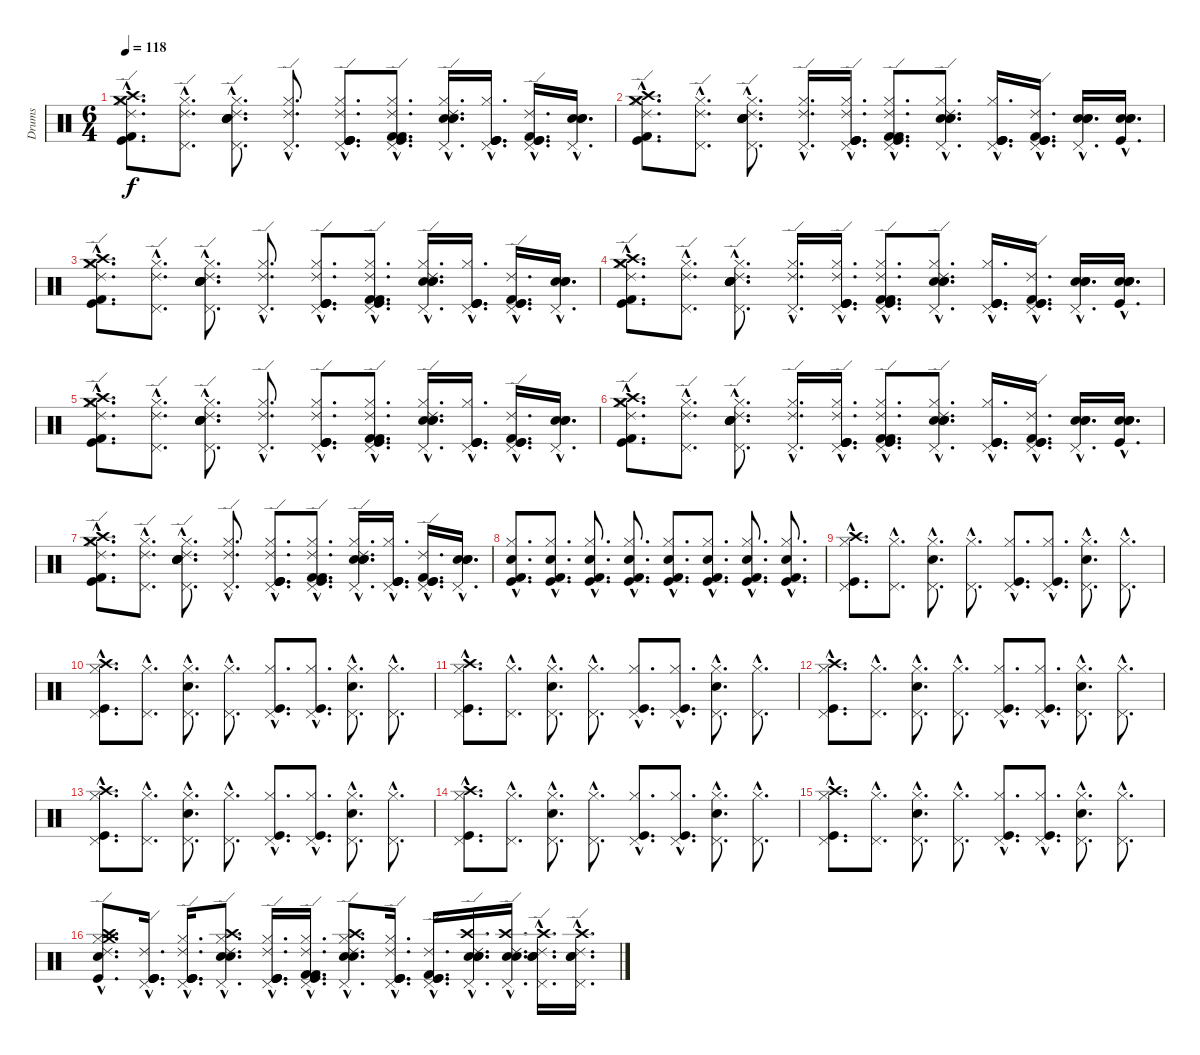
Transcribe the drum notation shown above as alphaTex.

\track ("Drums" "Drums") {instrument percussion}
\staff {score}
\articulation defaults
\ts (6 4)
\tempo 118
\clef neutral
\ks c
("Ride (edge) 2"{hac} "Crash high (hit)"{hac} "Kick (hit)"{hac} "Kick (hit) 2"{hac} "Hi-Hat (closed)"{hac} "Crash medium (hit)"{hac}).8{d dy f} ("Pedal Hi-Hat (hit)"{hac} "Hi-Hat (closed)"{hac} "Ride (edge) 2"{hac}).8{d} ("Pedal Hi-Hat (hit)"{hac} "Electric Snare (hit)"{hac} "Hand Clap (hit)"{hac} "Hand Clap (hit)"{hac} "Hi-Hat (closed)"{hac} "Ride (edge) 2"{hac}).8{d} ("Pedal Hi-Hat (hit)"{hac} "Hi-Hat (closed)"{hac} "Ride (edge) 2"{hac}).8{d} ("Pedal Hi-Hat (hit)"{hac} "Kick (hit)"{hac} "Kick (hit)"{hac} "Kick (hit)"{hac} "Hi-Hat (closed)"{hac} "Ride (edge) 2"{hac}).8{d} ("Pedal Hi-Hat (hit)"{hac} "Kick (hit)"{hac} "Kick (hit) 2"{hac} "Kick (hit) 2"{hac} "Hi-Hat (closed)"{hac} "Ride (edge) 2"{hac}).8{d} ("Pedal Hi-Hat (hit)"{hac} "Hand Clap (hit)"{hac} "Hand Clap (hit)"{hac} "Electric Snare (hit)"{hac} "Hi-Hat (closed)"{hac} "Ride (edge) 2"{hac}).16{d} ("Pedal Hi-Hat (hit)"{hac} "Kick (hit)"{hac} "Kick (hit)"{hac} "Kick (hit)"{hac} "Hi-Hat (closed)"{hac}).16{d} ("Pedal Hi-Hat (hit)"{hac} "Kick (hit)"{hac} "Kick (hit) 2"{hac} "Kick (hit)"{hac} "Ride (edge) 2"{hac}).16{d} ("Pedal Hi-Hat (hit)"{hac} "Electric Snare (hit)"{hac} "Hand Clap (hit)"{hac} "Electric Snare (hit)"{hac}).16{d} |
("Ride (edge) 2"{hac} "Crash high (hit)"{hac} "Kick (hit)"{hac} "Kick (hit) 2"{hac} "Hi-Hat (closed)"{hac} "Crash medium (hit)"{hac}).8{d} ("Pedal Hi-Hat (hit)"{hac} "Hi-Hat (closed)"{hac} "Ride (edge) 2"{hac}).8{d} ("Pedal Hi-Hat (hit)"{hac} "Electric Snare (hit)"{hac} "Hand Clap (hit)"{hac} "Hand Clap (hit)"{hac} "Hi-Hat (closed)"{hac} "Ride (edge) 2"{hac}).8{d} ("Pedal Hi-Hat (hit)"{hac} "Hi-Hat (closed)"{hac} "Ride (edge) 2"{hac}).16{d} ("Pedal Hi-Hat (hit)"{hac} "Kick (hit)"{hac} "Kick (hit)"{hac} "Kick (hit)"{hac} "Hi-Hat (closed)"{hac} "Ride (edge) 2"{hac}).16{d} ("Pedal Hi-Hat (hit)"{hac} "Kick (hit)"{hac} "Kick (hit) 2"{hac} "Kick (hit) 2"{hac} "Hi-Hat (closed)"{hac} "Ride (edge) 2"{hac}).8{d} ("Pedal Hi-Hat (hit)"{hac} "Hand Clap (hit)"{hac} "Hand Clap (hit)"{hac} "Electric Snare (hit)"{hac} "Hi-Hat (closed)"{hac} "Ride (edge) 2"{hac}).8{d} ("Pedal Hi-Hat (hit)"{hac} "Kick (hit)"{hac} "Kick (hit)"{hac} "Kick (hit)"{hac} "Hi-Hat (closed)"{hac}).16{d} ("Pedal Hi-Hat (hit)"{hac} "Kick (hit)"{hac} "Kick (hit) 2"{hac} "Kick (hit)"{hac} "Ride (edge) 2"{hac}).16{d} ("Pedal Hi-Hat (hit)"{hac} "Electric Snare (hit)"{hac} "Hand Clap (hit)"{hac} "Electric Snare (hit)"{hac}).16{d} ("Kick (hit)"{hac} "Electric Snare (hit)"{hac} "Hand Clap (hit)"{hac} "Electric Snare (hit)"{hac}).16{d} |
("Ride (edge) 2"{hac} "Crash high (hit)"{hac} "Kick (hit)"{hac} "Kick (hit) 2"{hac} "Hi-Hat (closed)"{hac} "Crash medium (hit)"{hac}).8{d} ("Pedal Hi-Hat (hit)"{hac} "Hi-Hat (closed)"{hac} "Ride (edge) 2"{hac}).8{d} ("Pedal Hi-Hat (hit)"{hac} "Electric Snare (hit)"{hac} "Hand Clap (hit)"{hac} "Hand Clap (hit)"{hac} "Hi-Hat (closed)"{hac} "Ride (edge) 2"{hac}).8{d} ("Pedal Hi-Hat (hit)"{hac} "Hi-Hat (closed)"{hac} "Ride (edge) 2"{hac}).8{d} ("Pedal Hi-Hat (hit)"{hac} "Kick (hit)"{hac} "Kick (hit)"{hac} "Kick (hit)"{hac} "Hi-Hat (closed)"{hac} "Ride (edge) 2"{hac}).8{d} ("Pedal Hi-Hat (hit)"{hac} "Kick (hit)"{hac} "Kick (hit) 2"{hac} "Kick (hit) 2"{hac} "Hi-Hat (closed)"{hac} "Ride (edge) 2"{hac}).8{d} ("Pedal Hi-Hat (hit)"{hac} "Hand Clap (hit)"{hac} "Hand Clap (hit)"{hac} "Electric Snare (hit)"{hac} "Hi-Hat (closed)"{hac} "Ride (edge) 2"{hac}).16{d} ("Pedal Hi-Hat (hit)"{hac} "Kick (hit)"{hac} "Kick (hit)"{hac} "Kick (hit)"{hac} "Hi-Hat (closed)"{hac}).16{d} ("Pedal Hi-Hat (hit)"{hac} "Kick (hit)"{hac} "Kick (hit) 2"{hac} "Kick (hit)"{hac} "Ride (edge) 2"{hac}).16{d} ("Pedal Hi-Hat (hit)"{hac} "Electric Snare (hit)"{hac} "Hand Clap (hit)"{hac} "Electric Snare (hit)"{hac}).16{d} |
("Ride (edge) 2"{hac} "Crash high (hit)"{hac} "Kick (hit)"{hac} "Kick (hit) 2"{hac} "Hi-Hat (closed)"{hac} "Crash medium (hit)"{hac}).8{d} ("Pedal Hi-Hat (hit)"{hac} "Hi-Hat (closed)"{hac} "Ride (edge) 2"{hac}).8{d} ("Pedal Hi-Hat (hit)"{hac} "Electric Snare (hit)"{hac} "Hand Clap (hit)"{hac} "Hand Clap (hit)"{hac} "Hi-Hat (closed)"{hac} "Ride (edge) 2"{hac}).8{d} ("Pedal Hi-Hat (hit)"{hac} "Hi-Hat (closed)"{hac} "Ride (edge) 2"{hac}).16{d} ("Pedal Hi-Hat (hit)"{hac} "Kick (hit)"{hac} "Kick (hit)"{hac} "Kick (hit)"{hac} "Hi-Hat (closed)"{hac} "Ride (edge) 2"{hac}).16{d} ("Pedal Hi-Hat (hit)"{hac} "Kick (hit)"{hac} "Kick (hit) 2"{hac} "Kick (hit) 2"{hac} "Hi-Hat (closed)"{hac} "Ride (edge) 2"{hac}).8{d} ("Pedal Hi-Hat (hit)"{hac} "Hand Clap (hit)"{hac} "Hand Clap (hit)"{hac} "Electric Snare (hit)"{hac} "Hi-Hat (closed)"{hac} "Ride (edge) 2"{hac}).8{d} ("Pedal Hi-Hat (hit)"{hac} "Kick (hit)"{hac} "Kick (hit)"{hac} "Kick (hit)"{hac} "Hi-Hat (closed)"{hac}).16{d} ("Pedal Hi-Hat (hit)"{hac} "Kick (hit)"{hac} "Kick (hit) 2"{hac} "Kick (hit)"{hac} "Ride (edge) 2"{hac}).16{d} ("Pedal Hi-Hat (hit)"{hac} "Electric Snare (hit)"{hac} "Hand Clap (hit)"{hac} "Electric Snare (hit)"{hac}).16{d} ("Kick (hit)"{hac} "Electric Snare (hit)"{hac} "Hand Clap (hit)"{hac} "Electric Snare (hit)"{hac}).16{d} |
("Ride (edge) 2"{hac} "Crash high (hit)"{hac} "Kick (hit)"{hac} "Kick (hit) 2"{hac} "Hi-Hat (closed)"{hac} "Crash medium (hit)"{hac}).8{d} ("Pedal Hi-Hat (hit)"{hac} "Hi-Hat (closed)"{hac} "Ride (edge) 2"{hac}).8{d} ("Pedal Hi-Hat (hit)"{hac} "Electric Snare (hit)"{hac} "Hand Clap (hit)"{hac} "Hand Clap (hit)"{hac} "Hi-Hat (closed)"{hac} "Ride (edge) 2"{hac}).8{d} ("Pedal Hi-Hat (hit)"{hac} "Hi-Hat (closed)"{hac} "Ride (edge) 2"{hac}).8{d} ("Pedal Hi-Hat (hit)"{hac} "Kick (hit)"{hac} "Kick (hit)"{hac} "Kick (hit)"{hac} "Hi-Hat (closed)"{hac} "Ride (edge) 2"{hac}).8{d} ("Pedal Hi-Hat (hit)"{hac} "Kick (hit)"{hac} "Kick (hit) 2"{hac} "Kick (hit) 2"{hac} "Hi-Hat (closed)"{hac} "Ride (edge) 2"{hac}).8{d} ("Pedal Hi-Hat (hit)"{hac} "Hand Clap (hit)"{hac} "Hand Clap (hit)"{hac} "Electric Snare (hit)"{hac} "Hi-Hat (closed)"{hac} "Ride (edge) 2"{hac}).16{d} ("Pedal Hi-Hat (hit)"{hac} "Kick (hit)"{hac} "Kick (hit)"{hac} "Kick (hit)"{hac} "Hi-Hat (closed)"{hac}).16{d} ("Pedal Hi-Hat (hit)"{hac} "Kick (hit)"{hac} "Kick (hit) 2"{hac} "Kick (hit)"{hac} "Ride (edge) 2"{hac}).16{d} ("Pedal Hi-Hat (hit)"{hac} "Electric Snare (hit)"{hac} "Hand Clap (hit)"{hac} "Electric Snare (hit)"{hac}).16{d} |
("Ride (edge) 2"{hac} "Crash high (hit)"{hac} "Kick (hit)"{hac} "Kick (hit) 2"{hac} "Hi-Hat (closed)"{hac} "Crash medium (hit)"{hac}).8{d} ("Pedal Hi-Hat (hit)"{hac} "Hi-Hat (closed)"{hac} "Ride (edge) 2"{hac}).8{d} ("Pedal Hi-Hat (hit)"{hac} "Electric Snare (hit)"{hac} "Hand Clap (hit)"{hac} "Hand Clap (hit)"{hac} "Hi-Hat (closed)"{hac} "Ride (edge) 2"{hac}).8{d} ("Pedal Hi-Hat (hit)"{hac} "Hi-Hat (closed)"{hac} "Ride (edge) 2"{hac}).16{d} ("Pedal Hi-Hat (hit)"{hac} "Kick (hit)"{hac} "Kick (hit)"{hac} "Kick (hit)"{hac} "Hi-Hat (closed)"{hac} "Ride (edge) 2"{hac}).16{d} ("Pedal Hi-Hat (hit)"{hac} "Kick (hit)"{hac} "Kick (hit) 2"{hac} "Kick (hit) 2"{hac} "Hi-Hat (closed)"{hac} "Ride (edge) 2"{hac}).8{d} ("Pedal Hi-Hat (hit)"{hac} "Hand Clap (hit)"{hac} "Hand Clap (hit)"{hac} "Electric Snare (hit)"{hac} "Hi-Hat (closed)"{hac} "Ride (edge) 2"{hac}).8{d} ("Pedal Hi-Hat (hit)"{hac} "Kick (hit)"{hac} "Kick (hit)"{hac} "Kick (hit)"{hac} "Hi-Hat (closed)"{hac}).16{d} ("Pedal Hi-Hat (hit)"{hac} "Kick (hit)"{hac} "Kick (hit) 2"{hac} "Kick (hit)"{hac} "Ride (edge) 2"{hac}).16{d} ("Pedal Hi-Hat (hit)"{hac} "Electric Snare (hit)"{hac} "Hand Clap (hit)"{hac} "Electric Snare (hit)"{hac}).16{d} ("Kick (hit)"{hac} "Electric Snare (hit)"{hac} "Hand Clap (hit)"{hac} "Electric Snare (hit)"{hac}).16{d} |
("Ride (edge) 2"{hac} "Crash high (hit)"{hac} "Kick (hit)"{hac} "Kick (hit) 2"{hac} "Hi-Hat (closed)"{hac} "Crash medium (hit)"{hac}).8{d} ("Pedal Hi-Hat (hit)"{hac} "Hi-Hat (closed)"{hac} "Ride (edge) 2"{hac}).8{d} ("Pedal Hi-Hat (hit)"{hac} "Electric Snare (hit)"{hac} "Hand Clap (hit)"{hac} "Hand Clap (hit)"{hac} "Hi-Hat (closed)"{hac} "Ride (edge) 2"{hac}).8{d} ("Pedal Hi-Hat (hit)"{hac} "Hi-Hat (closed)"{hac} "Ride (edge) 2"{hac}).8{d} ("Pedal Hi-Hat (hit)"{hac} "Kick (hit)"{hac} "Kick (hit)"{hac} "Kick (hit)"{hac} "Hi-Hat (closed)"{hac} "Ride (edge) 2"{hac}).8{d} ("Pedal Hi-Hat (hit)"{hac} "Kick (hit)"{hac} "Kick (hit) 2"{hac} "Kick (hit) 2"{hac} "Hi-Hat (closed)"{hac} "Ride (edge) 2"{hac}).8{d} ("Pedal Hi-Hat (hit)"{hac} "Hand Clap (hit)"{hac} "Hand Clap (hit)"{hac} "Electric Snare (hit)"{hac} "Hi-Hat (closed)"{hac} "Ride (edge) 2"{hac}).16{d} ("Pedal Hi-Hat (hit)"{hac} "Kick (hit)"{hac} "Kick (hit)"{hac} "Kick (hit)"{hac} "Hi-Hat (closed)"{hac}).16{d} ("Pedal Hi-Hat (hit)"{hac} "Kick (hit)"{hac} "Kick (hit) 2"{hac} "Kick (hit)"{hac} "Ride (edge) 2"{hac}).16{d} ("Pedal Hi-Hat (hit)"{hac} "Electric Snare (hit)"{hac} "Hand Clap (hit)"{hac} "Electric Snare (hit)"{hac}).16{d} |
("Electric Snare (hit)"{hac} "Kick (hit)"{hac} "Kick (hit) 2"{hac} "Hi-Hat (closed)"{hac}).8{d} ("Electric Snare (hit)"{hac} "Kick (hit)"{hac} "Kick (hit) 2"{hac} "Hi-Hat (closed)"{hac}).8{d} ("Electric Snare (hit)"{hac} "Kick (hit)"{hac} "Kick (hit) 2"{hac} "Hi-Hat (closed)"{hac}).8{d} ("Electric Snare (hit)"{hac} "Kick (hit)"{hac} "Kick (hit) 2"{hac} "Hi-Hat (closed)"{hac}).8{d} ("Electric Snare (hit)"{hac} "Kick (hit)"{hac} "Kick (hit) 2"{hac} "Hi-Hat (closed)"{hac}).8{d} ("Electric Snare (hit)"{hac} "Kick (hit)"{hac} "Kick (hit) 2"{hac} "Hi-Hat (closed)"{hac}).8{d} ("Electric Snare (hit)"{hac} "Kick (hit)"{hac} "Kick (hit) 2"{hac} "Hi-Hat (closed)"{hac}).8{d} ("Electric Snare (hit)"{hac} "Kick (hit)"{hac} "Kick (hit) 2"{hac} "Hi-Hat (closed)"{hac}).8{d} |
("Hi-Hat (closed)"{hac} "Pedal Hi-Hat (hit)"{hac} "Kick (hit)"{hac} "Crash high (hit)"{hac}).8{d} ("Hi-Hat (closed)"{hac} "Pedal Hi-Hat (hit)"{hac}).8{d} ("Hi-Hat (closed)"{hac} "Pedal Hi-Hat (hit)"{hac} "Hand Clap (hit)"{hac}).8{d} ("Hi-Hat (closed)"{hac} "Pedal Hi-Hat (hit)"{hac}).8{d} ("Hi-Hat (closed)"{hac} "Pedal Hi-Hat (hit)"{hac} "Kick (hit)"{hac}).8{d} ("Hi-Hat (closed)"{hac} "Pedal Hi-Hat (hit)"{hac} "Kick (hit)"{hac}).8{d} ("Hi-Hat (closed)"{hac} "Pedal Hi-Hat (hit)"{hac} "Hand Clap (hit)"{hac}).8{d} ("Hi-Hat (closed)"{hac} "Pedal Hi-Hat (hit)"{hac}).8{d} |
("Hi-Hat (closed)"{hac} "Pedal Hi-Hat (hit)"{hac} "Kick (hit)"{hac} "Crash high (hit)"{hac}).8{d} ("Hi-Hat (closed)"{hac} "Pedal Hi-Hat (hit)"{hac}).8{d} ("Hi-Hat (closed)"{hac} "Pedal Hi-Hat (hit)"{hac} "Hand Clap (hit)"{hac}).8{d} ("Hi-Hat (closed)"{hac} "Pedal Hi-Hat (hit)"{hac}).8{d} ("Hi-Hat (closed)"{hac} "Pedal Hi-Hat (hit)"{hac} "Kick (hit)"{hac}).8{d} ("Hi-Hat (closed)"{hac} "Pedal Hi-Hat (hit)"{hac} "Kick (hit)"{hac}).8{d} ("Hi-Hat (closed)"{hac} "Pedal Hi-Hat (hit)"{hac} "Hand Clap (hit)"{hac}).8{d} ("Hi-Hat (closed)"{hac} "Pedal Hi-Hat (hit)"{hac}).8{d} |
("Hi-Hat (closed)"{hac} "Pedal Hi-Hat (hit)"{hac} "Kick (hit)"{hac} "Crash high (hit)"{hac}).8{d} ("Hi-Hat (closed)"{hac} "Pedal Hi-Hat (hit)"{hac}).8{d} ("Hi-Hat (closed)"{hac} "Pedal Hi-Hat (hit)"{hac} "Hand Clap (hit)"{hac}).8{d} ("Hi-Hat (closed)"{hac} "Pedal Hi-Hat (hit)"{hac}).8{d} ("Hi-Hat (closed)"{hac} "Pedal Hi-Hat (hit)"{hac} "Kick (hit)"{hac}).8{d} ("Hi-Hat (closed)"{hac} "Pedal Hi-Hat (hit)"{hac} "Kick (hit)"{hac}).8{d} ("Hi-Hat (closed)"{hac} "Pedal Hi-Hat (hit)"{hac} "Hand Clap (hit)"{hac}).8{d} ("Hi-Hat (closed)"{hac} "Pedal Hi-Hat (hit)"{hac}).8{d} |
("Hi-Hat (closed)"{hac} "Pedal Hi-Hat (hit)"{hac} "Kick (hit)"{hac} "Crash high (hit)"{hac}).8{d} ("Hi-Hat (closed)"{hac} "Pedal Hi-Hat (hit)"{hac}).8{d} ("Hi-Hat (closed)"{hac} "Pedal Hi-Hat (hit)"{hac} "Hand Clap (hit)"{hac}).8{d} ("Hi-Hat (closed)"{hac} "Pedal Hi-Hat (hit)"{hac}).8{d} ("Hi-Hat (closed)"{hac} "Pedal Hi-Hat (hit)"{hac} "Kick (hit)"{hac}).8{d} ("Hi-Hat (closed)"{hac} "Pedal Hi-Hat (hit)"{hac} "Kick (hit)"{hac}).8{d} ("Hi-Hat (closed)"{hac} "Pedal Hi-Hat (hit)"{hac} "Hand Clap (hit)"{hac}).8{d} ("Hi-Hat (closed)"{hac} "Pedal Hi-Hat (hit)"{hac}).8{d} |
("Hi-Hat (closed)"{hac} "Pedal Hi-Hat (hit)"{hac} "Kick (hit)"{hac} "Crash high (hit)"{hac}).8{d} ("Hi-Hat (closed)"{hac} "Pedal Hi-Hat (hit)"{hac}).8{d} ("Hi-Hat (closed)"{hac} "Pedal Hi-Hat (hit)"{hac} "Hand Clap (hit)"{hac}).8{d} ("Hi-Hat (closed)"{hac} "Pedal Hi-Hat (hit)"{hac}).8{d} ("Hi-Hat (closed)"{hac} "Pedal Hi-Hat (hit)"{hac} "Kick (hit)"{hac}).8{d} ("Hi-Hat (closed)"{hac} "Pedal Hi-Hat (hit)"{hac} "Kick (hit)"{hac}).8{d} ("Hi-Hat (closed)"{hac} "Pedal Hi-Hat (hit)"{hac} "Hand Clap (hit)"{hac}).8{d} ("Hi-Hat (closed)"{hac} "Pedal Hi-Hat (hit)"{hac}).8{d} |
("Hi-Hat (closed)"{hac} "Pedal Hi-Hat (hit)"{hac} "Kick (hit)"{hac} "Crash high (hit)"{hac}).8{d} ("Hi-Hat (closed)"{hac} "Pedal Hi-Hat (hit)"{hac}).8{d} ("Hi-Hat (closed)"{hac} "Pedal Hi-Hat (hit)"{hac} "Hand Clap (hit)"{hac}).8{d} ("Hi-Hat (closed)"{hac} "Pedal Hi-Hat (hit)"{hac}).8{d} ("Hi-Hat (closed)"{hac} "Pedal Hi-Hat (hit)"{hac} "Kick (hit)"{hac}).8{d} ("Hi-Hat (closed)"{hac} "Pedal Hi-Hat (hit)"{hac} "Kick (hit)"{hac}).8{d} ("Hi-Hat (closed)"{hac} "Pedal Hi-Hat (hit)"{hac} "Hand Clap (hit)"{hac}).8{d} ("Hi-Hat (closed)"{hac} "Pedal Hi-Hat (hit)"{hac}).8{d} |
("Hi-Hat (closed)"{hac} "Pedal Hi-Hat (hit)"{hac} "Kick (hit)"{hac} "Crash high (hit)"{hac}).8{d} ("Hi-Hat (closed)"{hac} "Pedal Hi-Hat (hit)"{hac}).8{d} ("Hi-Hat (closed)"{hac} "Pedal Hi-Hat (hit)"{hac} "Hand Clap (hit)"{hac}).8{d} ("Hi-Hat (closed)"{hac} "Pedal Hi-Hat (hit)"{hac}).8{d} ("Hi-Hat (closed)"{hac} "Pedal Hi-Hat (hit)"{hac} "Kick (hit)"{hac}).8{d} ("Hi-Hat (closed)"{hac} "Pedal Hi-Hat (hit)"{hac} "Kick (hit)"{hac}).8{d} ("Hi-Hat (closed)"{hac} "Pedal Hi-Hat (hit)"{hac} "Hand Clap (hit)"{hac}).8{d} ("Hi-Hat (closed)"{hac} "Pedal Hi-Hat (hit)"{hac}).8{d} |
("Ride (edge) 2"{hac} "Crash high (hit)"{hac} "Kick (hit)"{hac} "Electric Snare (hit)"{hac} "Hi-Hat (closed)"{hac} "Crash medium (hit)"{hac}).8{d} ("Pedal Hi-Hat (hit)"{hac} "Kick (hit)"{hac} "Kick (hit)"{hac} "Kick (hit)"{hac} "Ride (edge) 2"{hac}).16{d} ("Pedal Hi-Hat (hit)"{hac} "Kick (hit)"{hac} "Kick (hit)"{hac} "Kick (hit)"{hac} "Hi-Hat (closed)"{hac} "Ride (edge) 2"{hac}).16{d} ("Pedal Hi-Hat (hit)"{hac} "Crash high (hit)"{hac} "Electric Snare (hit)"{hac} "Electric Snare (hit)"{hac} "Hi-Hat (closed)"{hac} "Ride (edge) 2"{hac}).8{d} ("Pedal Hi-Hat (hit)"{hac} "Kick (hit)"{hac} "Kick (hit)"{hac} "Kick (hit)"{hac} "Hi-Hat (closed)"{hac} "Ride (edge) 2"{hac}).16{d} ("Pedal Hi-Hat (hit)"{hac} "Kick (hit)"{hac} "Kick (hit) 2"{hac} "Kick (hit) 2"{hac} "Hi-Hat (closed)"{hac} "Ride (edge) 2"{hac}).16{d} ("Pedal Hi-Hat (hit)"{hac} "Crash high (hit)"{hac} "Hand Clap (hit)"{hac} "Electric Snare (hit)"{hac} "Hi-Hat (closed)"{hac} "Ride (edge) 2"{hac}).8{d} ("Pedal Hi-Hat (hit)"{hac} "Kick (hit)"{hac} "Kick (hit)"{hac} "Kick (hit)"{hac} "Hi-Hat (closed)"{hac} "Ride (edge) 2"{hac}).16{d} ("Pedal Hi-Hat (hit)"{hac} "Kick (hit)"{hac} "Kick (hit) 2"{hac} "Kick (hit)"{hac} "Ride (edge) 2"{hac}).16{d} ("Pedal Hi-Hat (hit)"{hac} "Electric Snare (hit)"{hac} "Hand Clap (hit)"{hac} "Electric Snare (hit)"{hac} "Crash high (hit)"{hac} "Ride (edge) 2"{hac}).16{d} ("Pedal Hi-Hat (hit)"{hac} "Electric Snare (hit)"{hac} "Electric Snare (hit)"{hac} "Crash high (hit)"{hac} "Ride (edge) 2"{hac}).16{d} ("Pedal Hi-Hat (hit)"{hac} "Electric Snare (hit)"{hac} "Electric Snare (hit)"{hac} "Crash high (hit)"{hac} "Ride (edge) 2"{hac}).16{d} ("Pedal Hi-Hat (hit)"{hac} "Electric Snare (hit)"{hac} "Electric Snare (hit)"{hac} "Crash high (hit)"{hac} "Ride (edge) 2"{hac}).16{d}
